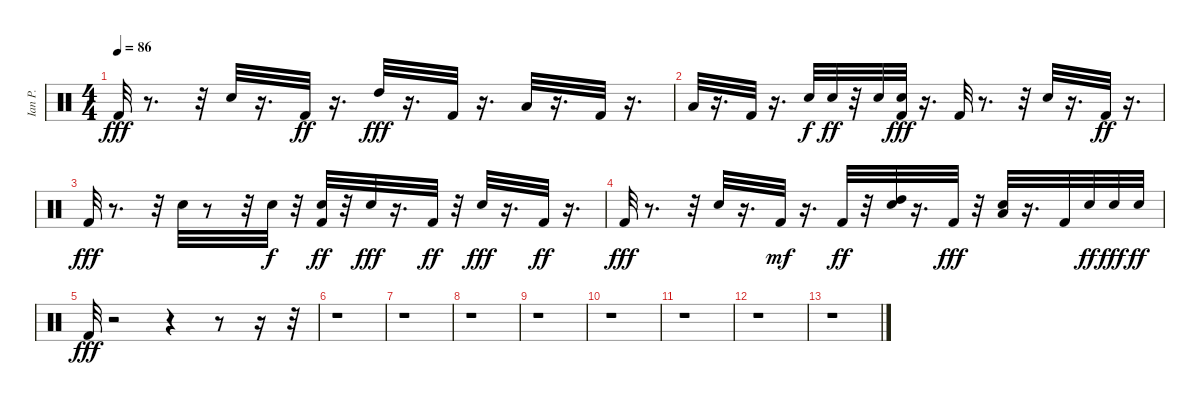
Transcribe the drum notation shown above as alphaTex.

\track ("Ian P." "Ian P.") {instrument percussion}
\staff {score}
\articulation defaults
\ts (4 4)
\tempo 86
\clef neutral
\ks c "Kick (hit) 2".32{dy fff}
r.8{d} r.32 "Snare (hit) 2".32 r.16{d} "Kick (hit) 2".32{dy ff} r.16{d} "High Tom (hit)".32{dy fff} r.16{d} "Kick (hit) 2".32 r.16{d} "Low Tom (hit)".32 r.16{d} "Kick (hit) 2".32 r.16{d} |
"Low Floor Tom (hit)".32 r.16{d} "Kick (hit) 2".32 r.16{d} "Snare (hit) 2".32{dy f} "Snare (hit) 2".32{dy ff} r.32 "Snare (hit) 2".32 ("Snare (hit) 2" "Kick (hit) 2").32{dy fff} r.16{d} "Kick (hit) 2".32 r.8{d} r.32 "Snare (hit) 2".32 r.16{d} "Kick (hit) 2".32{dy ff} r.16{d} |
"Kick (hit) 2".32{dy fff} r.8{d} r.32 "Snare (hit) 2".32 r.8 r.32 "Snare (hit) 2".32{dy f} r.32 ("Kick (hit) 2" "Snare (hit) 2").32{dy ff} r.32 "Snare (hit) 2".32{dy fff} r.16{d} "Kick (hit) 2".32{dy ff} r.32 "Snare (hit) 2".32{dy fff} r.16{d} "Kick (hit) 2".32{dy ff} r.16{d} |
"Kick (hit) 2".32{dy fff} r.8{d} r.32 "Snare (hit) 2".32 r.16{d} "Kick (hit) 2".32{dy mf} r.16{d} "Kick (hit) 2".32{dy ff} r.32 ("High Tom (hit)" "Snare (hit) 2").32 r.16{d} "Kick (hit) 2".32{dy fff} r.32 ("Low Tom (hit)" "Snare (hit) 2").32 r.16{d} "Kick (hit) 2".32 "Snare (hit) 2".32{dy ff} "Snare (hit) 2".32{dy fff} "Snare (hit) 2".32{dy ff} |
"Kick (hit) 2".32{dy fff} r.2 r.4 r.8 r.16 r.32 |
r.1 |
r.1 |
r.1 |
r.1 |
r.1 |
r.1 |
r.1 |
r.1
